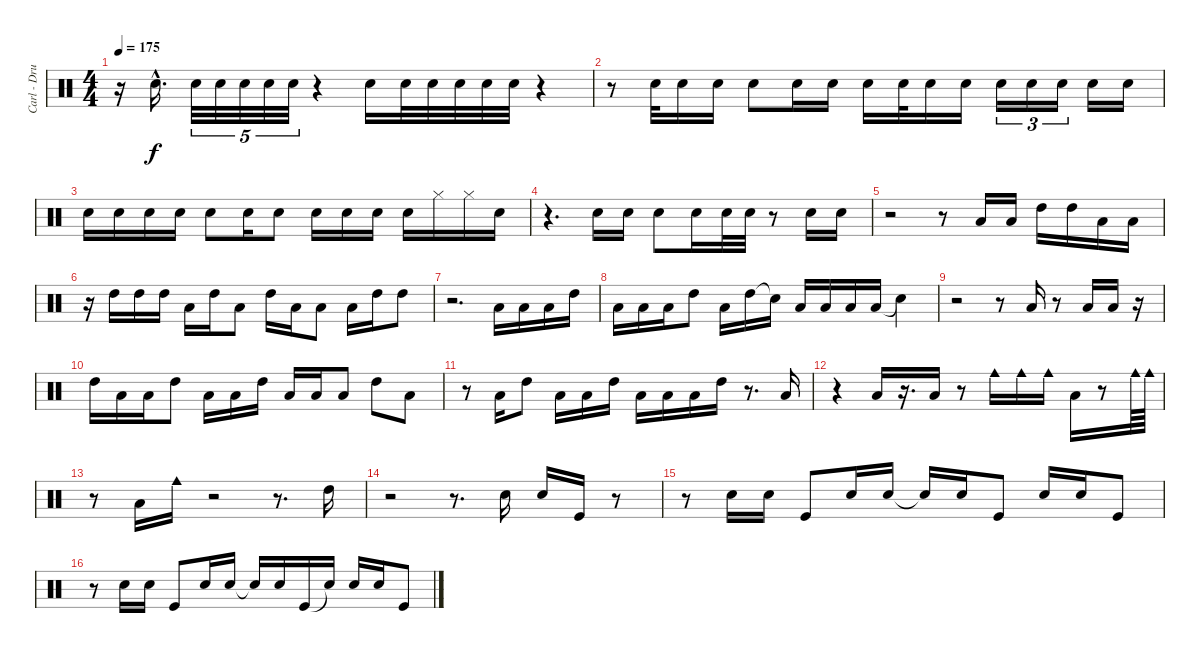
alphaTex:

\track ("Carl - Drums II" "Carl - Dru") {instrument percussion}
\staff {score}
\articulation defaults
\ts (4 4)
\tempo 175
\clef neutral
\ks c
r.16{dy f} "Snare (hit) 2"{hac}.16{d} "Snare (hit) 2".32{tu (5 4)} "Snare (hit) 2".32{tu (5 4)} "Snare (hit) 2".32{tu (5 4)} "Snare (hit) 2".32{tu (5 4)} "Snare (hit) 2".32{tu (5 4)} r.4 "Snare (hit) 2".16 "Snare (hit) 2".32 "Snare (hit) 2".32 "Snare (hit) 2".32 "Snare (hit) 2".32 "Snare (hit) 2".32 r.4 |
r.8 "Snare (hit) 2".32 "Snare (hit) 2".16 "Snare (hit) 2".16 "Snare (hit) 2".8 "Snare (hit) 2".16 "Snare (hit) 2".16 "Snare (hit) 2".16 "Snare (hit) 2".32 "Snare (hit) 2".16 "Snare (hit) 2".16 "Snare (hit) 2".16{tu (3 2)} "Snare (hit) 2".16{tu (3 2)} "Snare (hit) 2".16{tu (3 2)} "Snare (hit) 2".16 "Snare (hit) 2".16 |
"Snare (hit) 2".16 "Snare (hit) 2".16 "Snare (hit) 2".16 "Snare (hit) 2".16 "Snare (hit) 2".8 "Snare (hit) 2".16 "Snare (hit) 2".8 "Snare (hit) 2".16 "Snare (hit) 2".16 "Snare (hit) 2".16 "Snare (hit) 2".16 "Hi-Hat (closed)".16 "Hi-Hat (closed)".16 "Snare (hit) 2".16 |
r.4{d} "Snare (hit) 2".16 "Snare (hit) 2".16 "Snare (hit) 2".8 "Snare (hit) 2".16 "Snare (hit) 2".32 "Snare (hit) 2".32 r.8 "Snare (hit) 2".16 "Snare (hit) 2".16 |
r.2 r.8 "Low Tom (hit)".16 "Low Tom (hit)".16 "High Tom (hit)".16 "High Tom (hit)".16 "Low Tom (hit)".16 "Low Tom (hit)".16 |
r.16 "High Tom (hit)".16 "High Tom (hit)".16 "High Tom (hit)".16 "Low Tom (hit)".16 "High Tom (hit)".16 "Low Tom (hit)".8 "High Tom (hit)".16 "Low Tom (hit)".16 "Low Tom (hit)".8 "Low Tom (hit)".16 "High Tom (hit)".16 "High Tom (hit)".8 |
r.2{d} "Low Tom (hit)".16 "Low Tom (hit)".16 "Low Tom (hit)".16 "High Tom (hit)".16 |
"Low Tom (hit)".16 "Low Tom (hit)".16 "Low Tom (hit)".16 "High Tom (hit)".8 "Low Tom (hit)".16 "High Tom (hit)".16 "Snare (hit)"{t}.16 "Low Floor Tom (hit)".16 "Low Floor Tom (hit)".16 "Low Floor Tom (hit)".16 "Low Tom (hit)".16 "Snare (hit)"{t}.4 |
r.2 r.8 "Low Floor Tom (hit)".16 r.8 "Low Floor Tom (hit)".16 "Low Tom (hit)".16 r.16 |
"High Tom (hit)".16 "Low Floor Tom (hit)".16 "Low Tom (hit)".16 "High Tom (hit)".8 "Low Floor Tom (hit)".16 "Low Tom (hit)".16 "High Tom (hit)".16 "Low Tom (hit)".16 "Low Floor Tom (hit)".16 "Low Tom (hit)".8 "High Tom (hit)".8 "Low Floor Tom (hit)".8 |
r.8 "Low Tom (hit)".16 "High Tom (hit)".8 "Low Floor Tom (hit)".16 "Low Tom (hit)".16 "High Tom (hit)".16 "Low Tom (hit)".16 "Low Floor Tom (hit)".16 "Low Tom (hit)".16 "High Tom (hit)".16 r.8{d} "Low Floor Tom (hit)".16 |
r.4 "Low Floor Tom (hit)".16 r.16{d} "Low Floor Tom (hit)".16 r.8 "Cowbell medium (hit)".16 "Cowbell medium (hit)".16 "Cowbell medium (hit)".16 "Low Floor Tom (hit)".16 r.8 "Cowbell medium (hit)".64 "Cowbell medium (hit)".64 |
r.8 "Low Floor Tom (hit)".16 "Cowbell medium (hit)".16 r.2 r.8{d} "High Tom (hit)".16 |
r.2 r.8{d} "Snare (hit) 2".16 "Snare (hit) 2".16 "Kick (hit)".16 r.8 |
r.8 "Snare (hit) 2".16 "Snare (hit) 2".16 "Kick (hit)".8 "Snare (hit) 2".16 "Snare (hit) 2".16 "Snare (hit)"{t}.16 "Snare (hit) 2".16 "Kick (hit)".8 "Snare (hit) 2".16 "Snare (hit) 2".16 "Kick (hit)".8 |
r.8 "Snare (hit) 2".16 "Snare (hit) 2".16 "Kick (hit)".8 "Snare (hit) 2".16 "Snare (hit) 2".16 "Snare (hit)"{t}.16 "Snare (hit) 2".16 "Kick (hit)".16 "Snare (hit)"{t}.16 "Snare (hit) 2".16 "Snare (hit) 2".16 "Kick (hit)".8
